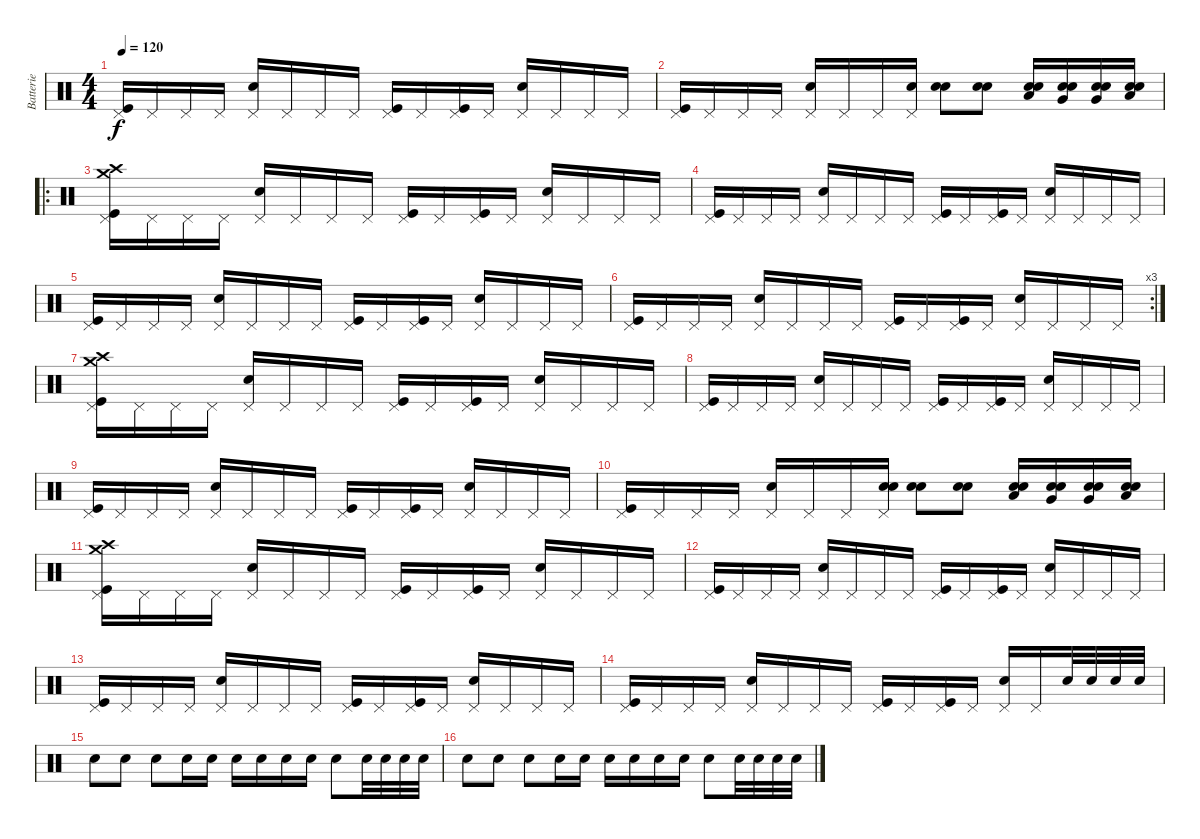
\track ("Batterie" "Batterie") {instrument percussion}
\staff {score}
\articulation defaults
\ts (4 4)
\tempo 120
\clef neutral
\ks c
("Pedal Hi-Hat (hit)" "Kick (hit)").16{dy f} "Pedal Hi-Hat (hit)".16 "Pedal Hi-Hat (hit)".16 "Pedal Hi-Hat (hit)".16 ("Electric Snare (hit)" "Pedal Hi-Hat (hit)").16 "Pedal Hi-Hat (hit)".16 "Pedal Hi-Hat (hit)".16 "Pedal Hi-Hat (hit)".16 ("Pedal Hi-Hat (hit)" "Kick (hit)").16 "Pedal Hi-Hat (hit)".16 ("Pedal Hi-Hat (hit)" "Kick (hit)").16 "Pedal Hi-Hat (hit)".16 ("Electric Snare (hit)" "Pedal Hi-Hat (hit)").16 "Pedal Hi-Hat (hit)".16 "Pedal Hi-Hat (hit)".16 "Pedal Hi-Hat (hit)".16 |
("Pedal Hi-Hat (hit)" "Kick (hit)").16 "Pedal Hi-Hat (hit)".16 "Pedal Hi-Hat (hit)".16 "Pedal Hi-Hat (hit)".16 ("Electric Snare (hit)" "Pedal Hi-Hat (hit)").16 "Pedal Hi-Hat (hit)".16 "Pedal Hi-Hat (hit)".16 ("Snare (hit) 2" "Pedal Hi-Hat (hit)").16 ("Electric Snare (hit)" "Snare (hit) 2").8 ("Electric Snare (hit)" "Snare (hit) 2").8 ("Electric Snare (hit)" "Snare (hit) 2" "Low Tom (hit)").16 ("Electric Snare (hit)" "Snare (hit) 2" "Very Low Tom (hit)").16 ("Electric Snare (hit)" "Snare (hit) 2" "Very Low Tom (hit)").16 ("Electric Snare (hit)" "Snare (hit) 2" "Low Floor Tom (hit)").16 |
\ro
("Crash high (hit)" "Crash medium (hit)" "Pedal Hi-Hat (hit)" "Kick (hit)").16 "Pedal Hi-Hat (hit)".16 "Pedal Hi-Hat (hit)".16 "Pedal Hi-Hat (hit)".16 ("Electric Snare (hit)" "Pedal Hi-Hat (hit)").16 "Pedal Hi-Hat (hit)".16 "Pedal Hi-Hat (hit)".16 "Pedal Hi-Hat (hit)".16 ("Pedal Hi-Hat (hit)" "Kick (hit)").16 "Pedal Hi-Hat (hit)".16 ("Pedal Hi-Hat (hit)" "Kick (hit)").16 "Pedal Hi-Hat (hit)".16 ("Electric Snare (hit)" "Pedal Hi-Hat (hit)").16 "Pedal Hi-Hat (hit)".16 "Pedal Hi-Hat (hit)".16 "Pedal Hi-Hat (hit)".16 |
("Pedal Hi-Hat (hit)" "Kick (hit)").16 "Pedal Hi-Hat (hit)".16 "Pedal Hi-Hat (hit)".16 "Pedal Hi-Hat (hit)".16 ("Electric Snare (hit)" "Pedal Hi-Hat (hit)").16 "Pedal Hi-Hat (hit)".16 "Pedal Hi-Hat (hit)".16 "Pedal Hi-Hat (hit)".16 ("Pedal Hi-Hat (hit)" "Kick (hit)").16 "Pedal Hi-Hat (hit)".16 ("Pedal Hi-Hat (hit)" "Kick (hit)").16 "Pedal Hi-Hat (hit)".16 ("Electric Snare (hit)" "Pedal Hi-Hat (hit)").16 "Pedal Hi-Hat (hit)".16 "Pedal Hi-Hat (hit)".16 "Pedal Hi-Hat (hit)".16 |
("Pedal Hi-Hat (hit)" "Kick (hit)").16 "Pedal Hi-Hat (hit)".16 "Pedal Hi-Hat (hit)".16 "Pedal Hi-Hat (hit)".16 ("Electric Snare (hit)" "Pedal Hi-Hat (hit)").16 "Pedal Hi-Hat (hit)".16 "Pedal Hi-Hat (hit)".16 "Pedal Hi-Hat (hit)".16 ("Pedal Hi-Hat (hit)" "Kick (hit)").16 "Pedal Hi-Hat (hit)".16 ("Pedal Hi-Hat (hit)" "Kick (hit)").16 "Pedal Hi-Hat (hit)".16 ("Electric Snare (hit)" "Pedal Hi-Hat (hit)").16 "Pedal Hi-Hat (hit)".16 "Pedal Hi-Hat (hit)".16 "Pedal Hi-Hat (hit)".16 |
\rc 3
("Pedal Hi-Hat (hit)" "Kick (hit)").16 "Pedal Hi-Hat (hit)".16 "Pedal Hi-Hat (hit)".16 "Pedal Hi-Hat (hit)".16 ("Electric Snare (hit)" "Pedal Hi-Hat (hit)").16 "Pedal Hi-Hat (hit)".16 "Pedal Hi-Hat (hit)".16 "Pedal Hi-Hat (hit)".16 ("Pedal Hi-Hat (hit)" "Kick (hit)").16 "Pedal Hi-Hat (hit)".16 ("Pedal Hi-Hat (hit)" "Kick (hit)").16 "Pedal Hi-Hat (hit)".16 ("Electric Snare (hit)" "Pedal Hi-Hat (hit)").16 "Pedal Hi-Hat (hit)".16 "Pedal Hi-Hat (hit)".16 "Pedal Hi-Hat (hit)".16 |
("Crash high (hit)" "Crash medium (hit)" "Pedal Hi-Hat (hit)" "Kick (hit)").16 "Pedal Hi-Hat (hit)".16 "Pedal Hi-Hat (hit)".16 "Pedal Hi-Hat (hit)".16 ("Electric Snare (hit)" "Pedal Hi-Hat (hit)").16 "Pedal Hi-Hat (hit)".16 "Pedal Hi-Hat (hit)".16 "Pedal Hi-Hat (hit)".16 ("Pedal Hi-Hat (hit)" "Kick (hit)").16 "Pedal Hi-Hat (hit)".16 ("Pedal Hi-Hat (hit)" "Kick (hit)").16 "Pedal Hi-Hat (hit)".16 ("Electric Snare (hit)" "Pedal Hi-Hat (hit)").16 "Pedal Hi-Hat (hit)".16 "Pedal Hi-Hat (hit)".16 "Pedal Hi-Hat (hit)".16 |
("Pedal Hi-Hat (hit)" "Kick (hit)").16 "Pedal Hi-Hat (hit)".16 "Pedal Hi-Hat (hit)".16 "Pedal Hi-Hat (hit)".16 ("Electric Snare (hit)" "Pedal Hi-Hat (hit)").16 "Pedal Hi-Hat (hit)".16 "Pedal Hi-Hat (hit)".16 "Pedal Hi-Hat (hit)".16 ("Pedal Hi-Hat (hit)" "Kick (hit)").16 "Pedal Hi-Hat (hit)".16 ("Pedal Hi-Hat (hit)" "Kick (hit)").16 "Pedal Hi-Hat (hit)".16 ("Electric Snare (hit)" "Pedal Hi-Hat (hit)").16 "Pedal Hi-Hat (hit)".16 "Pedal Hi-Hat (hit)".16 "Pedal Hi-Hat (hit)".16 |
("Pedal Hi-Hat (hit)" "Kick (hit)").16 "Pedal Hi-Hat (hit)".16 "Pedal Hi-Hat (hit)".16 "Pedal Hi-Hat (hit)".16 ("Electric Snare (hit)" "Pedal Hi-Hat (hit)").16 "Pedal Hi-Hat (hit)".16 "Pedal Hi-Hat (hit)".16 "Pedal Hi-Hat (hit)".16 ("Pedal Hi-Hat (hit)" "Kick (hit)").16 "Pedal Hi-Hat (hit)".16 ("Pedal Hi-Hat (hit)" "Kick (hit)").16 "Pedal Hi-Hat (hit)".16 ("Electric Snare (hit)" "Pedal Hi-Hat (hit)").16 "Pedal Hi-Hat (hit)".16 "Pedal Hi-Hat (hit)".16 "Pedal Hi-Hat (hit)".16 |
("Pedal Hi-Hat (hit)" "Kick (hit)").16 "Pedal Hi-Hat (hit)".16 "Pedal Hi-Hat (hit)".16 "Pedal Hi-Hat (hit)".16 ("Electric Snare (hit)" "Pedal Hi-Hat (hit)").16 "Pedal Hi-Hat (hit)".16 "Pedal Hi-Hat (hit)".16 ("Electric Snare (hit)" "Snare (hit) 2" "Pedal Hi-Hat (hit)").16 ("Electric Snare (hit)" "Snare (hit) 2").8 ("Electric Snare (hit)" "Snare (hit) 2").8 ("Electric Snare (hit)" "Snare (hit) 2" "Low Tom (hit)").16 ("Electric Snare (hit)" "Snare (hit) 2" "Very Low Tom (hit)").16 ("Electric Snare (hit)" "Snare (hit) 2" "Very Low Tom (hit)").16 ("Electric Snare (hit)" "Snare (hit) 2" "Low Floor Tom (hit)").16 |
("Crash high (hit)" "Crash medium (hit)" "Pedal Hi-Hat (hit)" "Kick (hit)").16 "Pedal Hi-Hat (hit)".16 "Pedal Hi-Hat (hit)".16 "Pedal Hi-Hat (hit)".16 ("Electric Snare (hit)" "Pedal Hi-Hat (hit)").16 "Pedal Hi-Hat (hit)".16 "Pedal Hi-Hat (hit)".16 "Pedal Hi-Hat (hit)".16 ("Pedal Hi-Hat (hit)" "Kick (hit)").16 "Pedal Hi-Hat (hit)".16 ("Pedal Hi-Hat (hit)" "Kick (hit)").16 "Pedal Hi-Hat (hit)".16 ("Electric Snare (hit)" "Pedal Hi-Hat (hit)").16 "Pedal Hi-Hat (hit)".16 "Pedal Hi-Hat (hit)".16 "Pedal Hi-Hat (hit)".16 |
("Pedal Hi-Hat (hit)" "Kick (hit)").16 "Pedal Hi-Hat (hit)".16 "Pedal Hi-Hat (hit)".16 "Pedal Hi-Hat (hit)".16 ("Electric Snare (hit)" "Pedal Hi-Hat (hit)").16 "Pedal Hi-Hat (hit)".16 "Pedal Hi-Hat (hit)".16 "Pedal Hi-Hat (hit)".16 ("Pedal Hi-Hat (hit)" "Kick (hit)").16 "Pedal Hi-Hat (hit)".16 ("Pedal Hi-Hat (hit)" "Kick (hit)").16 "Pedal Hi-Hat (hit)".16 ("Electric Snare (hit)" "Pedal Hi-Hat (hit)").16 "Pedal Hi-Hat (hit)".16 "Pedal Hi-Hat (hit)".16 "Pedal Hi-Hat (hit)".16 |
("Pedal Hi-Hat (hit)" "Kick (hit)").16 "Pedal Hi-Hat (hit)".16 "Pedal Hi-Hat (hit)".16 "Pedal Hi-Hat (hit)".16 ("Electric Snare (hit)" "Pedal Hi-Hat (hit)").16 "Pedal Hi-Hat (hit)".16 "Pedal Hi-Hat (hit)".16 "Pedal Hi-Hat (hit)".16 ("Pedal Hi-Hat (hit)" "Kick (hit)").16 "Pedal Hi-Hat (hit)".16 ("Pedal Hi-Hat (hit)" "Kick (hit)").16 "Pedal Hi-Hat (hit)".16 ("Electric Snare (hit)" "Pedal Hi-Hat (hit)").16 "Pedal Hi-Hat (hit)".16 "Pedal Hi-Hat (hit)".16 "Pedal Hi-Hat (hit)".16 |
("Pedal Hi-Hat (hit)" "Kick (hit)").16 "Pedal Hi-Hat (hit)".16 "Pedal Hi-Hat (hit)".16 "Pedal Hi-Hat (hit)".16 ("Electric Snare (hit)" "Pedal Hi-Hat (hit)").16 "Pedal Hi-Hat (hit)".16 "Pedal Hi-Hat (hit)".16 "Pedal Hi-Hat (hit)".16 ("Pedal Hi-Hat (hit)" "Kick (hit)").16 "Pedal Hi-Hat (hit)".16 ("Pedal Hi-Hat (hit)" "Kick (hit)").16 "Pedal Hi-Hat (hit)".16 ("Electric Snare (hit)" "Pedal Hi-Hat (hit)").16 "Pedal Hi-Hat (hit)".16 "Electric Snare (hit)".32 "Electric Snare (hit)".32 "Electric Snare (hit)".32 "Electric Snare (hit)".32 |
"Electric Snare (hit)".8 "Electric Snare (hit)".8 "Electric Snare (hit)".8 "Electric Snare (hit)".16 "Electric Snare (hit)".16 "Electric Snare (hit)".16 "Electric Snare (hit)".16 "Electric Snare (hit)".16 "Electric Snare (hit)".16 "Electric Snare (hit)".8 "Electric Snare (hit)".32 "Electric Snare (hit)".32 "Electric Snare (hit)".32 "Electric Snare (hit)".32 |
"Electric Snare (hit)".8 "Electric Snare (hit)".8 "Electric Snare (hit)".8 "Electric Snare (hit)".16 "Electric Snare (hit)".16 "Electric Snare (hit)".16 "Electric Snare (hit)".16 "Electric Snare (hit)".16 "Electric Snare (hit)".16 "Electric Snare (hit)".8 "Electric Snare (hit)".32 "Electric Snare (hit)".32 "Electric Snare (hit)".32 "Electric Snare (hit)".32
